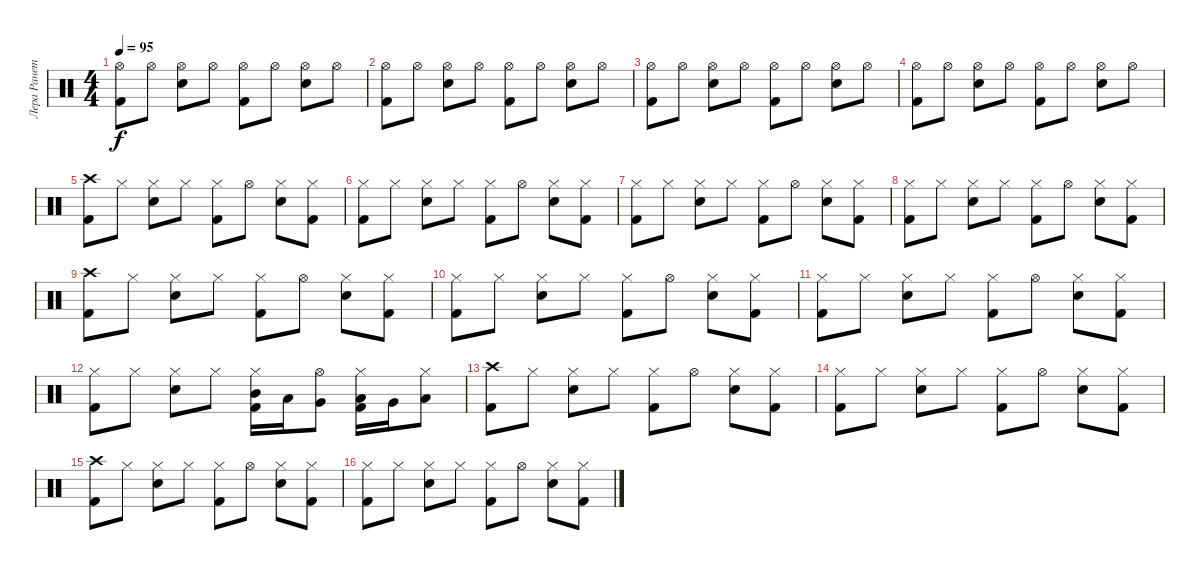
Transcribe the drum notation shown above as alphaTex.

\track ("Лера Ранетка" "Лера Ранет") {instrument percussion}
\staff {score}
\articulation defaults
\ts (4 4)
\tempo 95
\clef neutral
\ks c
("Hi-Hat (open)" "Kick (hit) 2").8{dy f} "Hi-Hat (open)".8 ("Hi-Hat (open)" "Electric Snare (hit)").8 "Hi-Hat (open)".8 ("Hi-Hat (open)" "Kick (hit) 2").8 "Hi-Hat (open)".8 ("Hi-Hat (open)" "Electric Snare (hit)").8 "Hi-Hat (open)".8 |
("Hi-Hat (open)" "Kick (hit) 2").8 "Hi-Hat (open)".8 ("Hi-Hat (open)" "Electric Snare (hit)").8 "Hi-Hat (open)".8 ("Hi-Hat (open)" "Kick (hit) 2").8 "Hi-Hat (open)".8 ("Hi-Hat (open)" "Electric Snare (hit)").8 "Hi-Hat (open)".8 |
("Hi-Hat (open)" "Kick (hit) 2").8 "Hi-Hat (open)".8 ("Hi-Hat (open)" "Electric Snare (hit)").8 "Hi-Hat (open)".8 ("Hi-Hat (open)" "Kick (hit) 2").8 "Hi-Hat (open)".8 ("Hi-Hat (open)" "Electric Snare (hit)").8 "Hi-Hat (open)".8 |
("Hi-Hat (open)" "Kick (hit) 2").8 "Hi-Hat (open)".8 ("Hi-Hat (open)" "Electric Snare (hit)").8 "Hi-Hat (open)".8 ("Hi-Hat (open)" "Kick (hit) 2").8 "Hi-Hat (open)".8 ("Hi-Hat (open)" "Electric Snare (hit)").8 "Hi-Hat (open)".8 |
("Crash high (hit)" "Kick (hit) 2").8 "Hi-Hat (closed)".8 ("Hi-Hat (closed)" "Electric Snare (hit)").8 "Hi-Hat (closed)".8 ("Hi-Hat (closed)" "Kick (hit) 2").8 "Hi-Hat (open)".8 ("Hi-Hat (closed)" "Electric Snare (hit)").8 ("Hi-Hat (closed)" "Kick (hit) 2").8 |
("Hi-Hat (closed)" "Kick (hit) 2").8 "Hi-Hat (closed)".8 ("Hi-Hat (closed)" "Electric Snare (hit)").8 "Hi-Hat (closed)".8 ("Hi-Hat (closed)" "Kick (hit) 2").8 "Hi-Hat (open)".8 ("Hi-Hat (closed)" "Electric Snare (hit)").8 ("Hi-Hat (closed)" "Kick (hit) 2").8 |
("Hi-Hat (closed)" "Kick (hit) 2").8 "Hi-Hat (closed)".8 ("Hi-Hat (closed)" "Electric Snare (hit)").8 "Hi-Hat (closed)".8 ("Hi-Hat (closed)" "Kick (hit) 2").8 "Hi-Hat (open)".8 ("Hi-Hat (closed)" "Electric Snare (hit)").8 ("Hi-Hat (closed)" "Kick (hit) 2").8 |
("Hi-Hat (closed)" "Kick (hit) 2").8 "Hi-Hat (closed)".8 ("Hi-Hat (closed)" "Electric Snare (hit)").8 "Hi-Hat (closed)".8 ("Hi-Hat (closed)" "Kick (hit) 2").8 "Hi-Hat (open)".8 ("Hi-Hat (closed)" "Electric Snare (hit)").8 ("Hi-Hat (closed)" "Kick (hit) 2").8 |
("Crash high (hit)" "Kick (hit) 2").8 "Hi-Hat (closed)".8 ("Hi-Hat (closed)" "Electric Snare (hit)").8 "Hi-Hat (closed)".8 ("Hi-Hat (closed)" "Kick (hit) 2").8 "Hi-Hat (open)".8 ("Hi-Hat (closed)" "Electric Snare (hit)").8 ("Hi-Hat (closed)" "Kick (hit) 2").8 |
("Hi-Hat (closed)" "Kick (hit) 2").8 "Hi-Hat (closed)".8 ("Hi-Hat (closed)" "Electric Snare (hit)").8 "Hi-Hat (closed)".8 ("Hi-Hat (closed)" "Kick (hit) 2").8 "Hi-Hat (open)".8 ("Hi-Hat (closed)" "Electric Snare (hit)").8 ("Hi-Hat (closed)" "Kick (hit) 2").8 |
("Hi-Hat (closed)" "Kick (hit) 2").8 "Hi-Hat (closed)".8 ("Hi-Hat (closed)" "Electric Snare (hit)").8 "Hi-Hat (closed)".8 ("Hi-Hat (closed)" "Kick (hit) 2").8 "Hi-Hat (open)".8 ("Hi-Hat (closed)" "Electric Snare (hit)").8 ("Hi-Hat (closed)" "Kick (hit) 2").8 |
("Hi-Hat (closed)" "Kick (hit) 2").8 "Hi-Hat (closed)".8 ("Hi-Hat (closed)" "Electric Snare (hit)").8 "Hi-Hat (closed)".8 ("Hi-Hat (closed)" "Mid Tom (hit)" "Kick (hit) 2").16 "Low Tom (hit)".16 ("Hi-Hat (open)" "Very Low Tom (hit)").8 ("Hi-Hat (closed)" "Low Tom (hit)" "Kick (hit) 2").16 "Very Low Tom (hit)".16 ("Hi-Hat (closed)" "Low Floor Tom (hit)").8 |
("Crash high (hit)" "Kick (hit) 2").8 "Hi-Hat (closed)".8 ("Hi-Hat (closed)" "Electric Snare (hit)").8 "Hi-Hat (closed)".8 ("Hi-Hat (closed)" "Kick (hit) 2").8 "Hi-Hat (open)".8 ("Hi-Hat (closed)" "Electric Snare (hit)").8 ("Hi-Hat (closed)" "Kick (hit) 2").8 |
("Hi-Hat (closed)" "Kick (hit) 2").8 "Hi-Hat (closed)".8 ("Hi-Hat (closed)" "Electric Snare (hit)").8 "Hi-Hat (closed)".8 ("Hi-Hat (closed)" "Kick (hit) 2").8 "Hi-Hat (open)".8 ("Hi-Hat (closed)" "Electric Snare (hit)").8 ("Hi-Hat (closed)" "Kick (hit) 2").8 |
("Crash high (hit)" "Kick (hit) 2").8 "Hi-Hat (closed)".8 ("Hi-Hat (closed)" "Electric Snare (hit)").8 "Hi-Hat (closed)".8 ("Hi-Hat (closed)" "Kick (hit) 2").8 "Hi-Hat (open)".8 ("Hi-Hat (closed)" "Electric Snare (hit)").8 ("Hi-Hat (closed)" "Kick (hit) 2").8 |
("Hi-Hat (closed)" "Kick (hit) 2").8 "Hi-Hat (closed)".8 ("Hi-Hat (closed)" "Electric Snare (hit)").8 "Hi-Hat (closed)".8 ("Hi-Hat (closed)" "Kick (hit) 2").8 "Hi-Hat (open)".8 ("Hi-Hat (closed)" "Electric Snare (hit)").8 ("Hi-Hat (closed)" "Kick (hit) 2").8
